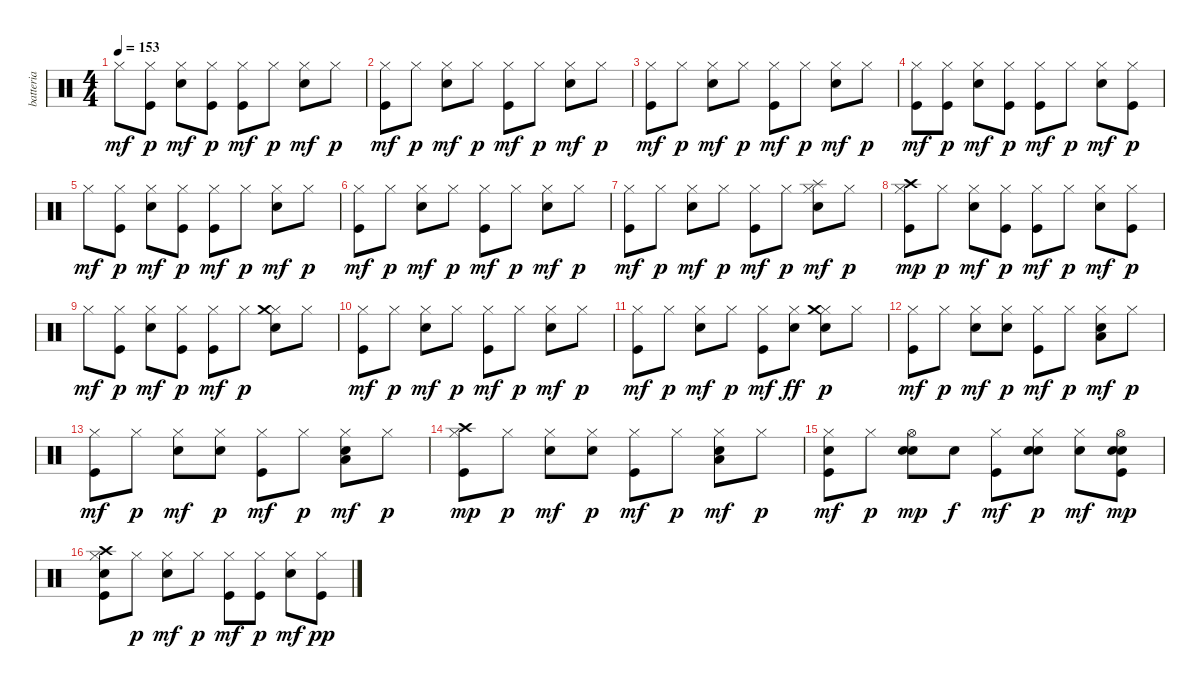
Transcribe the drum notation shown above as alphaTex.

\track ("batteria" "batteria") {instrument percussion}
\staff {score}
\articulation defaults
\ts (4 4)
\tempo 153
\clef neutral
\ks c "Hi-Hat (closed)".8{dy mf}
("Kick (hit)" "Hi-Hat (closed)").8{dy p} ("Hi-Hat (closed)" "Electric Snare (hit)").8{dy mf} ("Kick (hit)" "Hi-Hat (closed)").8{dy p} ("Kick (hit)" "Hi-Hat (closed)").8{dy mf} "Hi-Hat (closed)".8{dy p} ("Hi-Hat (closed)" "Electric Snare (hit)").8{dy mf} "Hi-Hat (closed)".8{dy p} |
("Kick (hit)" "Hi-Hat (closed)").8{dy mf} "Hi-Hat (closed)".8{dy p} ("Hi-Hat (closed)" "Electric Snare (hit)").8{dy mf} "Hi-Hat (closed)".8{dy p} ("Kick (hit)" "Hi-Hat (closed)").8{dy mf} "Hi-Hat (closed)".8{dy p} ("Hi-Hat (closed)" "Electric Snare (hit)").8{dy mf} "Hi-Hat (closed)".8{dy p} |
("Kick (hit)" "Hi-Hat (closed)").8{dy mf} "Hi-Hat (closed)".8{dy p} ("Hi-Hat (closed)" "Electric Snare (hit)").8{dy mf} "Hi-Hat (closed)".8{dy p} ("Kick (hit)" "Hi-Hat (closed)").8{dy mf} "Hi-Hat (closed)".8{dy p} ("Hi-Hat (closed)" "Electric Snare (hit)").8{dy mf} "Hi-Hat (closed)".8{dy p} |
("Kick (hit)" "Hi-Hat (closed)").8{dy mf} ("Kick (hit)" "Hi-Hat (closed)").8{dy p} ("Hi-Hat (closed)" "Electric Snare (hit)").8{dy mf} ("Kick (hit)" "Hi-Hat (closed)").8{dy p} ("Kick (hit)" "Hi-Hat (closed)").8{dy mf} "Hi-Hat (closed)".8{dy p} ("Hi-Hat (closed)" "Electric Snare (hit)").8{dy mf} ("Kick (hit)" "Hi-Hat (closed)").8{dy p} |
"Hi-Hat (closed)".8{dy mf} ("Kick (hit)" "Hi-Hat (closed)").8{dy p} ("Hi-Hat (closed)" "Electric Snare (hit)").8{dy mf} ("Kick (hit)" "Hi-Hat (closed)").8{dy p} ("Kick (hit)" "Hi-Hat (closed)").8{dy mf} "Hi-Hat (closed)".8{dy p} ("Hi-Hat (closed)" "Electric Snare (hit)").8{dy mf} "Hi-Hat (closed)".8{dy p} |
("Kick (hit)" "Hi-Hat (closed)").8{dy mf} "Hi-Hat (closed)".8{dy p} ("Hi-Hat (closed)" "Electric Snare (hit)").8{dy mf} "Hi-Hat (closed)".8{dy p} ("Kick (hit)" "Hi-Hat (closed)").8{dy mf} "Hi-Hat (closed)".8{dy p} ("Hi-Hat (closed)" "Electric Snare (hit)").8{dy mf} "Hi-Hat (closed)".8{dy p} |
("Kick (hit)" "Hi-Hat (closed)").8{dy mf} "Hi-Hat (closed)".8{dy p} ("Hi-Hat (closed)" "Electric Snare (hit)").8{dy mf} "Hi-Hat (closed)".8{dy p} ("Kick (hit)" "Hi-Hat (closed)").8{dy mf} "Hi-Hat (closed)".8{dy p} ("Hi-Hat (closed)" "Splash (hit)" "Electric Snare (hit)").8{dy mf} "Hi-Hat (closed)".8{dy p} |
("Kick (hit)" "Hi-Hat (closed)" "Crash high (hit)").8{dy mp} "Hi-Hat (closed)".8{dy p} ("Hi-Hat (closed)" "Electric Snare (hit)").8{dy mf} ("Kick (hit)" "Hi-Hat (closed)").8{dy p} ("Kick (hit)" "Hi-Hat (closed)").8{dy mf} "Hi-Hat (closed)".8{dy p} ("Hi-Hat (closed)" "Electric Snare (hit)").8{dy mf} ("Kick (hit)" "Hi-Hat (closed)").8{dy p} |
"Hi-Hat (closed)".8{dy mf} ("Kick (hit)" "Hi-Hat (closed)").8{dy p} ("Hi-Hat (closed)" "Electric Snare (hit)").8{dy mf} ("Kick (hit)" "Hi-Hat (closed)").8{dy p} ("Kick (hit)" "Hi-Hat (closed)").8{dy mf} "Hi-Hat (closed)".8{dy p} ("Hi-Hat (closed)" "Crash medium (hit)" "Electric Snare (hit)").8 "Hi-Hat (closed)".8 |
("Kick (hit)" "Hi-Hat (closed)").8{dy mf} "Hi-Hat (closed)".8{dy p} ("Hi-Hat (closed)" "Electric Snare (hit)").8{dy mf} "Hi-Hat (closed)".8{dy p} ("Kick (hit)" "Hi-Hat (closed)").8{dy mf} "Hi-Hat (closed)".8{dy p} ("Hi-Hat (closed)" "Electric Snare (hit)").8{dy mf} "Hi-Hat (closed)".8{dy p} |
("Kick (hit)" "Hi-Hat (closed)").8{dy mf} "Hi-Hat (closed)".8{dy p} ("Hi-Hat (closed)" "Electric Snare (hit)").8{dy mf} "Hi-Hat (closed)".8{dy p} ("Kick (hit)" "Hi-Hat (closed)").8{dy mf} ("Hi-Hat (closed)" "Electric Snare (hit)").8{dy ff} ("Hi-Hat (closed)" "Crash medium (hit)" "Electric Snare (hit)").8{dy p} "Hi-Hat (closed)".8 |
("Kick (hit)" "Hi-Hat (closed)").8{dy mf} "Hi-Hat (closed)".8{dy p} ("Hi-Hat (closed)" "Electric Snare (hit)").8{dy mf} ("Hi-Hat (closed)" "Electric Snare (hit)").8{dy p} ("Kick (hit)" "Hi-Hat (closed)").8{dy mf} "Hi-Hat (closed)".8{dy p} ("Low Floor Tom (hit)" "Hi-Hat (closed)" "Electric Snare (hit)").8{dy mf} "Hi-Hat (closed)".8{dy p} |
("Kick (hit)" "Hi-Hat (closed)").8{dy mf} "Hi-Hat (closed)".8{dy p} ("Hi-Hat (closed)" "Electric Snare (hit)").8{dy mf} ("Hi-Hat (closed)" "Electric Snare (hit)").8{dy p} ("Kick (hit)" "Hi-Hat (closed)").8{dy mf} "Hi-Hat (closed)".8{dy p} ("Low Floor Tom (hit)" "Hi-Hat (closed)" "Electric Snare (hit)").8{dy mf} "Hi-Hat (closed)".8{dy p} |
("Kick (hit)" "Hi-Hat (closed)" "Crash high (hit)").8{dy mp} "Hi-Hat (closed)".8{dy p} ("Hi-Hat (closed)" "Electric Snare (hit)").8{dy mf} ("Hi-Hat (closed)" "Electric Snare (hit)").8{dy p} ("Kick (hit)" "Hi-Hat (closed)").8{dy mf} "Hi-Hat (closed)".8{dy p} ("Low Floor Tom (hit)" "Hi-Hat (closed)" "Electric Snare (hit)").8{dy mf} "Hi-Hat (closed)".8{dy p} |
("Kick (hit)" "Hi-Hat (closed)" "Electric Snare (hit)").8{dy mf} "Hi-Hat (closed)".8{dy p} ("Electric Snare (hit)" "Hi-Hat (open)" "Electric Snare (hit)").8{dy mp} "Electric Snare (hit)".8{dy f} ("Kick (hit)" "Hi-Hat (closed)").8{dy mf} ("Electric Snare (hit)" "Hi-Hat (closed)" "Electric Snare (hit)").8{dy p} ("Hi-Hat (closed)" "Electric Snare (hit)").8{dy mf} ("Electric Snare (hit)" "Kick (hit)" "Hi-Hat (open)" "Electric Snare (hit)").8{dy mp} |
("Electric Snare (hit)" "Kick (hit)" "Hi-Hat (closed)" "Crash high (hit)").8 "Hi-Hat (closed)".8{dy p} ("Hi-Hat (closed)" "Electric Snare (hit)").8{dy mf} "Hi-Hat (closed)".8{dy p} ("Kick (hit)" "Hi-Hat (closed)").8{dy mf} ("Kick (hit)" "Hi-Hat (closed)").8{dy p} ("Hi-Hat (closed)" "Electric Snare (hit)").8{dy mf} ("Kick (hit)" "Hi-Hat (closed)").8{dy pp}
